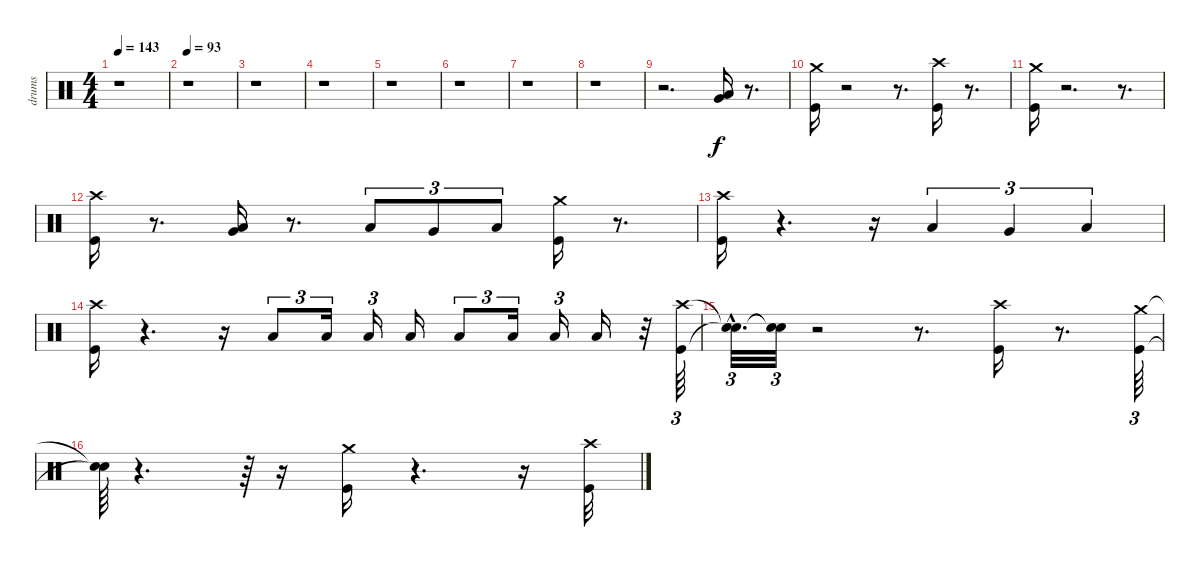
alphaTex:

\track ("drums" "drums") {instrument percussion}
\staff {score}
\articulation defaults
\ts (4 4)
\tempo 143
\clef neutral
\ks c
r.1{dy f} |
\tempo 93
r.1 |
r.1 |
r.1 |
r.1 |
r.1 |
r.1 |
r.1 |
r.2{d} ("Low Floor Tom (hit)" "Very Low Tom (hit)").16 r.8{d} |
("Crash medium (hit)" "Kick (hit)").16 r.2 r.8{d} ("Kick (hit)" "Crash high (hit)").16 r.8{d} |
("Kick (hit)" "Crash medium (hit)").16 r.2{d} r.8{d} |
("Crash high (hit)" "Kick (hit)").16 r.8{d} ("Low Tom (hit)" "Very Low Tom (hit)").16 r.8{d} "Low Tom (hit)".8{tu (3 2)} "Very Low Tom (hit)".8{tu (3 2)} "Low Floor Tom (hit)".8{tu (3 2)} ("Crash medium (hit)" "Kick (hit)").16 r.8{d} |
("Crash high (hit)" "Kick (hit)").16 r.4{d} r.16 "Low Tom (hit)".4{tu (3 2)} "Very Low Tom (hit)".4{tu (3 2)} "Low Floor Tom (hit)".4{tu (3 2)} |
("Crash high (hit)" "Kick (hit)").16 r.4{d} r.16 "Low Tom (hit)".8{tu (3 2)} "Low Tom (hit)".16{tu (3 2)} "Low Tom (hit)".16{tu (3 2)} "Low Tom (hit)".16 "Low Tom (hit)".8{tu (3 2)} "Low Tom (hit)".16{tu (3 2)} "Low Tom (hit)".16{tu (3 2)} "Low Tom (hit)".16 r.32 ("Crash high (hit)" "Kick (hit)").64{tu (3 2)} |
("Snare (hit)"{hac t} "Snare (hit)"{hac t}).32{d tu (3 2)} ("Snare (hit)"{t} "Snare (hit)"{t}).32{tu (3 2)} r.2 r.8{d} ("Crash high (hit)" "Kick (hit)").16 r.8{d} ("Crash medium (hit)" "Kick (hit)").64{tu (3 2)} |
("Snare (hit)"{t} "Snare (hit)"{t}).64 r.4{d} r.64 r.16 ("Crash medium (hit)" "Kick (hit)").16 r.4{d} r.16 ("Crash high (hit)" "Kick (hit)").32
